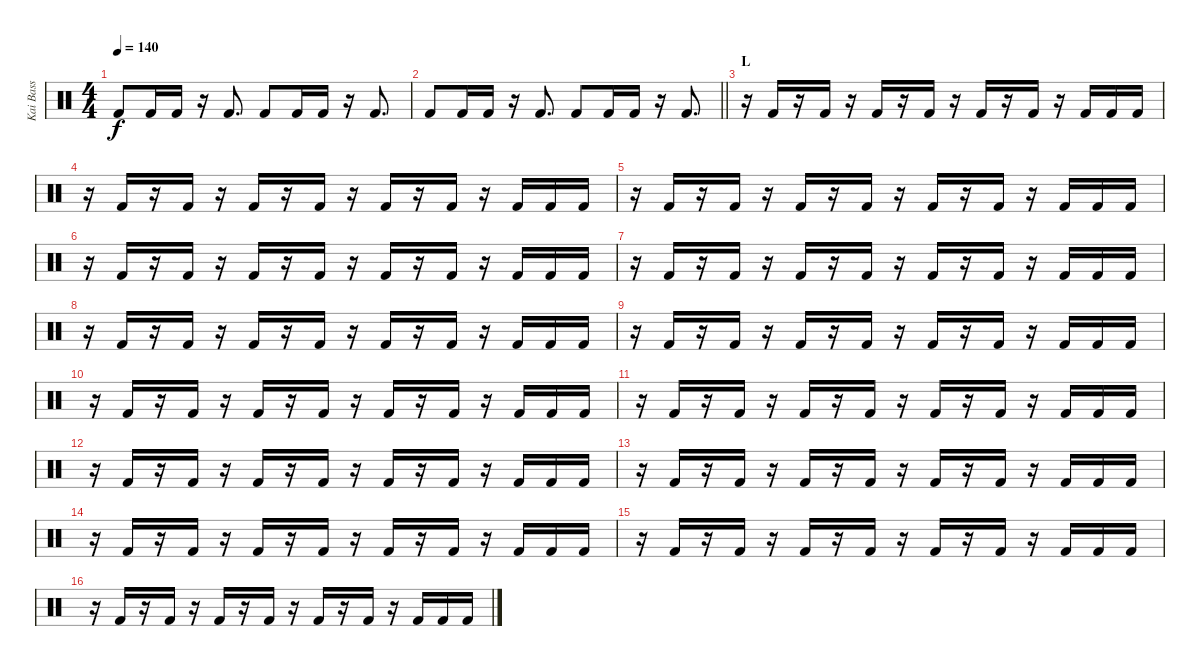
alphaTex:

\track ("Kai Bass" "Kai Bass") {instrument percussion}
\staff {score}
\articulation defaults
\ts (4 4)
\tempo 140
\clef neutral
\ks c "Kick (hit) 2".8{dy f} "Kick (hit) 2".16 "Kick (hit) 2".16
r.16 "Kick (hit) 2".8{d} "Kick (hit) 2".8 "Kick (hit) 2".16 "Kick (hit) 2".16 r.16 "Kick (hit) 2".8{d} |
\barLineRight lightlight "Kick (hit) 2".8 "Kick (hit) 2".16 "Kick (hit) 2".16
r.16 "Kick (hit) 2".8{d} "Kick (hit) 2".8 "Kick (hit) 2".16 "Kick (hit) 2".16 r.16 "Kick (hit) 2".8{d} |
\section ("" "L")
r.16 "Kick (hit) 2".16 r.16 "Kick (hit) 2".16 r.16 "Kick (hit) 2".16 r.16 "Kick (hit) 2".16 r.16 "Kick (hit) 2".16 r.16 "Kick (hit) 2".16 r.16 "Kick (hit) 2".16 "Kick (hit) 2".16 "Kick (hit) 2".16 |
r.16 "Kick (hit) 2".16 r.16 "Kick (hit) 2".16 r.16 "Kick (hit) 2".16 r.16 "Kick (hit) 2".16 r.16 "Kick (hit) 2".16 r.16 "Kick (hit) 2".16 r.16 "Kick (hit) 2".16 "Kick (hit) 2".16 "Kick (hit) 2".16 |
r.16 "Kick (hit) 2".16 r.16 "Kick (hit) 2".16 r.16 "Kick (hit) 2".16 r.16 "Kick (hit) 2".16 r.16 "Kick (hit) 2".16 r.16 "Kick (hit) 2".16 r.16 "Kick (hit) 2".16 "Kick (hit) 2".16 "Kick (hit) 2".16 |
r.16 "Kick (hit) 2".16 r.16 "Kick (hit) 2".16 r.16 "Kick (hit) 2".16 r.16 "Kick (hit) 2".16 r.16 "Kick (hit) 2".16 r.16 "Kick (hit) 2".16 r.16 "Kick (hit) 2".16 "Kick (hit) 2".16 "Kick (hit) 2".16 |
r.16 "Kick (hit) 2".16 r.16 "Kick (hit) 2".16 r.16 "Kick (hit) 2".16 r.16 "Kick (hit) 2".16 r.16 "Kick (hit) 2".16 r.16 "Kick (hit) 2".16 r.16 "Kick (hit) 2".16 "Kick (hit) 2".16 "Kick (hit) 2".16 |
r.16 "Kick (hit) 2".16 r.16 "Kick (hit) 2".16 r.16 "Kick (hit) 2".16 r.16 "Kick (hit) 2".16 r.16 "Kick (hit) 2".16 r.16 "Kick (hit) 2".16 r.16 "Kick (hit) 2".16 "Kick (hit) 2".16 "Kick (hit) 2".16 |
r.16 "Kick (hit) 2".16 r.16 "Kick (hit) 2".16 r.16 "Kick (hit) 2".16 r.16 "Kick (hit) 2".16 r.16 "Kick (hit) 2".16 r.16 "Kick (hit) 2".16 r.16 "Kick (hit) 2".16 "Kick (hit) 2".16 "Kick (hit) 2".16 |
r.16 "Kick (hit) 2".16 r.16 "Kick (hit) 2".16 r.16 "Kick (hit) 2".16 r.16 "Kick (hit) 2".16 r.16 "Kick (hit) 2".16 r.16 "Kick (hit) 2".16 r.16 "Kick (hit) 2".16 "Kick (hit) 2".16 "Kick (hit) 2".16 |
r.16 "Kick (hit) 2".16 r.16 "Kick (hit) 2".16 r.16 "Kick (hit) 2".16 r.16 "Kick (hit) 2".16 r.16 "Kick (hit) 2".16 r.16 "Kick (hit) 2".16 r.16 "Kick (hit) 2".16 "Kick (hit) 2".16 "Kick (hit) 2".16 |
r.16 "Kick (hit) 2".16 r.16 "Kick (hit) 2".16 r.16 "Kick (hit) 2".16 r.16 "Kick (hit) 2".16 r.16 "Kick (hit) 2".16 r.16 "Kick (hit) 2".16 r.16 "Kick (hit) 2".16 "Kick (hit) 2".16 "Kick (hit) 2".16 |
r.16 "Kick (hit) 2".16 r.16 "Kick (hit) 2".16 r.16 "Kick (hit) 2".16 r.16 "Kick (hit) 2".16 r.16 "Kick (hit) 2".16 r.16 "Kick (hit) 2".16 r.16 "Kick (hit) 2".16 "Kick (hit) 2".16 "Kick (hit) 2".16 |
r.16 "Kick (hit) 2".16 r.16 "Kick (hit) 2".16 r.16 "Kick (hit) 2".16 r.16 "Kick (hit) 2".16 r.16 "Kick (hit) 2".16 r.16 "Kick (hit) 2".16 r.16 "Kick (hit) 2".16 "Kick (hit) 2".16 "Kick (hit) 2".16 |
r.16 "Kick (hit) 2".16 r.16 "Kick (hit) 2".16 r.16 "Kick (hit) 2".16 r.16 "Kick (hit) 2".16 r.16 "Kick (hit) 2".16 r.16 "Kick (hit) 2".16 r.16 "Kick (hit) 2".16 "Kick (hit) 2".16 "Kick (hit) 2".16 |
r.16 "Kick (hit) 2".16 r.16 "Kick (hit) 2".16 r.16 "Kick (hit) 2".16 r.16 "Kick (hit) 2".16 r.16 "Kick (hit) 2".16 r.16 "Kick (hit) 2".16 r.16 "Kick (hit) 2".16 "Kick (hit) 2".16 "Kick (hit) 2".16
